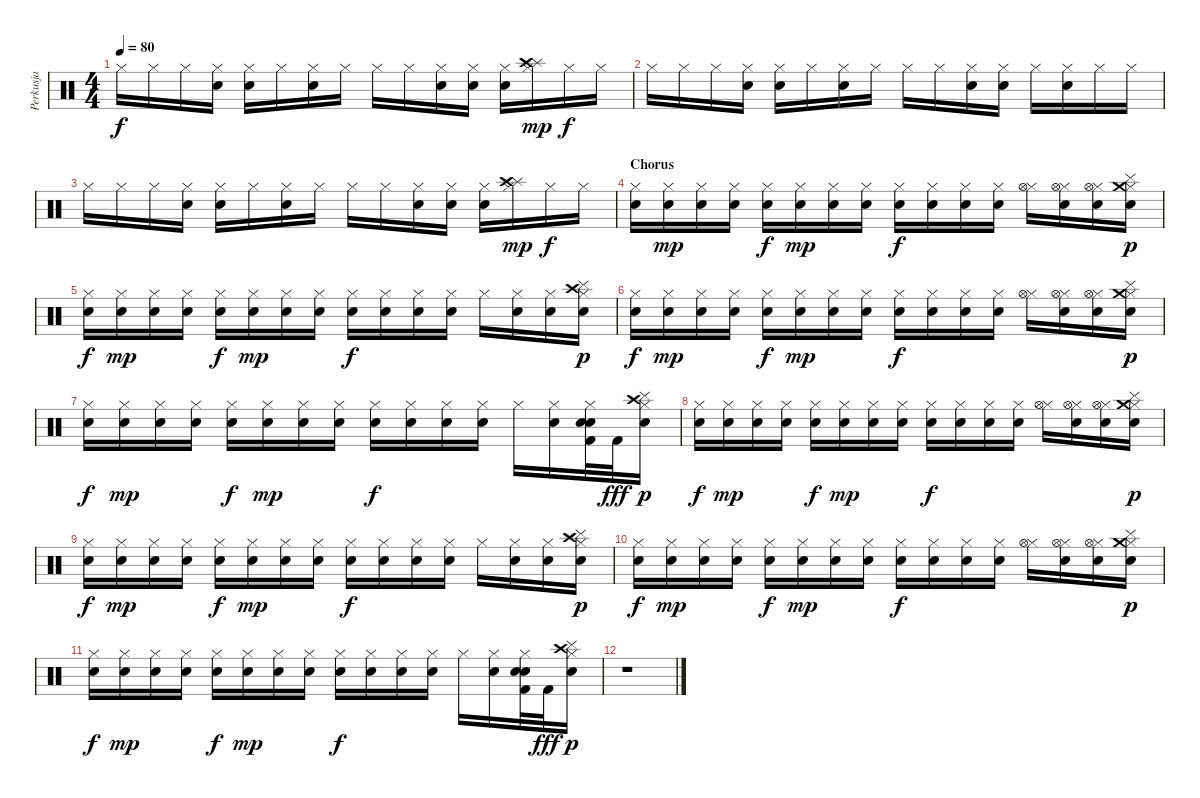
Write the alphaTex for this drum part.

\track ("Perkusja" "Perkusja") {instrument percussion}
\staff {score}
\articulation defaults
\ts (4 4)
\tempo 80
\clef neutral
\ks c "Hi-Hat (closed)".16{dy f} "Hi-Hat (closed)".16 "Hi-Hat (closed)".16
("Hi-Hat (closed)" "Electric Snare (hit)").16 ("Hi-Hat (closed)" "Snare (hit) 2").16 "Hi-Hat (closed)".16 ("Hi-Hat (closed)" "Electric Snare (hit)").16 "Hi-Hat (closed)".16 "Hi-Hat (closed)".16 "Hi-Hat (closed)".16 ("Hi-Hat (closed)" "Electric Snare (hit)").16 ("Hi-Hat (closed)" "Snare (hit) 2").16 ("Hi-Hat (closed)" "Electric Snare (hit)").16 ("Hi-Hat (closed)" "Splash (hit)" "Crash high (hit)").16{dy mp} "Hi-Hat (closed)".16{dy f} "Hi-Hat (closed)".16 |
"Hi-Hat (closed)".16 "Hi-Hat (closed)".16 "Hi-Hat (closed)".16 ("Hi-Hat (closed)" "Electric Snare (hit)").16 ("Hi-Hat (closed)" "Snare (hit) 2").16 "Hi-Hat (closed)".16 ("Hi-Hat (closed)" "Electric Snare (hit)").16 "Hi-Hat (closed)".16 "Hi-Hat (closed)".16 "Hi-Hat (closed)".16 ("Hi-Hat (closed)" "Electric Snare (hit)").16 ("Hi-Hat (closed)" "Snare (hit) 2").16 "Hi-Hat (closed)".16 ("Hi-Hat (closed)" "Electric Snare (hit)").16 "Hi-Hat (closed)".16 "Hi-Hat (closed)".16 |
"Hi-Hat (closed)".16 "Hi-Hat (closed)".16 "Hi-Hat (closed)".16 ("Hi-Hat (closed)" "Electric Snare (hit)").16 ("Hi-Hat (closed)" "Snare (hit) 2").16 "Hi-Hat (closed)".16 ("Hi-Hat (closed)" "Electric Snare (hit)").16 "Hi-Hat (closed)".16 "Hi-Hat (closed)".16 "Hi-Hat (closed)".16 ("Hi-Hat (closed)" "Electric Snare (hit)").16 ("Hi-Hat (closed)" "Snare (hit) 2").16 ("Hi-Hat (closed)" "Electric Snare (hit)").16 ("Hi-Hat (closed)" "Splash (hit)" "Crash high (hit)").16{dy mp} "Hi-Hat (closed)".16{dy f} "Hi-Hat (closed)".16 |
\section ("" "Chorus")
("Hi-Hat (closed)" "Snare (hit) 2").16 ("Hi-Hat (closed)" "Electric Snare (hit)").16{dy mp} ("Hi-Hat (closed)" "Electric Snare (hit)").16 ("Hi-Hat (closed)" "Electric Snare (hit)").16 ("Hi-Hat (closed)" "Snare (hit) 2").16{dy f} ("Hi-Hat (closed)" "Electric Snare (hit)").16{dy mp} ("Hi-Hat (closed)" "Electric Snare (hit)").16 ("Hi-Hat (closed)" "Electric Snare (hit)").16 ("Hi-Hat (closed)" "Snare (hit) 2").16{dy f} ("Hi-Hat (closed)" "Electric Snare (hit)").16 ("Hi-Hat (closed)" "Electric Snare (hit)").16 ("Hi-Hat (closed)" "Snare (hit) 2").16 ("Hi-Hat (closed)" "Hi-Hat (open)").16 ("Hi-Hat (closed)" "Snare (hit) 2" "Hi-Hat (open)").16 ("Hi-Hat (closed)" "Snare (hit) 2" "Hi-Hat (open)").16 ("Hi-Hat (closed)" "Snare (hit) 2" "Cymbal (hit)" "Crash medium (hit)").16{dy p} |
("Hi-Hat (closed)" "Snare (hit) 2").16{dy f} ("Hi-Hat (closed)" "Electric Snare (hit)").16{dy mp} ("Hi-Hat (closed)" "Electric Snare (hit)").16 ("Hi-Hat (closed)" "Electric Snare (hit)").16 ("Hi-Hat (closed)" "Snare (hit) 2").16{dy f} ("Hi-Hat (closed)" "Electric Snare (hit)").16{dy mp} ("Hi-Hat (closed)" "Electric Snare (hit)").16 ("Hi-Hat (closed)" "Electric Snare (hit)").16 ("Hi-Hat (closed)" "Snare (hit) 2").16{dy f} ("Hi-Hat (closed)" "Electric Snare (hit)").16 ("Hi-Hat (closed)" "Electric Snare (hit)").16 ("Hi-Hat (closed)" "Snare (hit) 2").16 "Hi-Hat (closed)".16 ("Hi-Hat (closed)" "Snare (hit) 2").16 ("Hi-Hat (closed)" "Snare (hit) 2").16 ("Hi-Hat (closed)" "Snare (hit) 2" "Cymbal (hit)" "Crash high (hit)").16{dy p} |
("Hi-Hat (closed)" "Snare (hit) 2").16{dy f} ("Hi-Hat (closed)" "Electric Snare (hit)").16{dy mp} ("Hi-Hat (closed)" "Electric Snare (hit)").16 ("Hi-Hat (closed)" "Electric Snare (hit)").16 ("Hi-Hat (closed)" "Snare (hit) 2").16{dy f} ("Hi-Hat (closed)" "Electric Snare (hit)").16{dy mp} ("Hi-Hat (closed)" "Electric Snare (hit)").16 ("Hi-Hat (closed)" "Electric Snare (hit)").16 ("Hi-Hat (closed)" "Snare (hit) 2").16{dy f} ("Hi-Hat (closed)" "Electric Snare (hit)").16 ("Hi-Hat (closed)" "Electric Snare (hit)").16 ("Hi-Hat (closed)" "Snare (hit) 2").16 ("Hi-Hat (closed)" "Hi-Hat (open)").16 ("Hi-Hat (closed)" "Snare (hit) 2" "Hi-Hat (open)").16 ("Hi-Hat (closed)" "Snare (hit) 2" "Hi-Hat (open)").16 ("Hi-Hat (closed)" "Snare (hit) 2" "Cymbal (hit)" "Crash medium (hit)").16{dy p} |
("Hi-Hat (closed)" "Snare (hit) 2").16{dy f} ("Hi-Hat (closed)" "Electric Snare (hit)").16{dy mp} ("Hi-Hat (closed)" "Electric Snare (hit)").16 ("Hi-Hat (closed)" "Electric Snare (hit)").16 ("Hi-Hat (closed)" "Snare (hit) 2").16{dy f} ("Hi-Hat (closed)" "Electric Snare (hit)").16{dy mp} ("Hi-Hat (closed)" "Electric Snare (hit)").16 ("Hi-Hat (closed)" "Electric Snare (hit)").16 ("Hi-Hat (closed)" "Snare (hit) 2").16{dy f} ("Hi-Hat (closed)" "Electric Snare (hit)").16 ("Hi-Hat (closed)" "Electric Snare (hit)").16 ("Hi-Hat (closed)" "Snare (hit) 2").16 "Hi-Hat (closed)".16 ("Hi-Hat (closed)" "Snare (hit) 2").16 ("Hi-Hat (closed)" "Snare (hit) 2" "Electric Snare (hit)" "Kick (hit) 2").32 "Kick (hit) 2".32{dy fff} ("Hi-Hat (closed)" "Snare (hit) 2" "Cymbal (hit)" "Crash high (hit)").16{dy p} |
("Hi-Hat (closed)" "Snare (hit) 2").16{dy f} ("Hi-Hat (closed)" "Electric Snare (hit)").16{dy mp} ("Hi-Hat (closed)" "Electric Snare (hit)").16 ("Hi-Hat (closed)" "Electric Snare (hit)").16 ("Hi-Hat (closed)" "Snare (hit) 2").16{dy f} ("Hi-Hat (closed)" "Electric Snare (hit)").16{dy mp} ("Hi-Hat (closed)" "Electric Snare (hit)").16 ("Hi-Hat (closed)" "Electric Snare (hit)").16 ("Hi-Hat (closed)" "Snare (hit) 2").16{dy f} ("Hi-Hat (closed)" "Electric Snare (hit)").16 ("Hi-Hat (closed)" "Electric Snare (hit)").16 ("Hi-Hat (closed)" "Snare (hit) 2").16 ("Hi-Hat (closed)" "Hi-Hat (open)").16 ("Hi-Hat (closed)" "Snare (hit) 2" "Hi-Hat (open)").16 ("Hi-Hat (closed)" "Snare (hit) 2" "Hi-Hat (open)").16 ("Hi-Hat (closed)" "Snare (hit) 2" "Cymbal (hit)" "Crash medium (hit)").16{dy p} |
("Hi-Hat (closed)" "Snare (hit) 2").16{dy f} ("Hi-Hat (closed)" "Electric Snare (hit)").16{dy mp} ("Hi-Hat (closed)" "Electric Snare (hit)").16 ("Hi-Hat (closed)" "Electric Snare (hit)").16 ("Hi-Hat (closed)" "Snare (hit) 2").16{dy f} ("Hi-Hat (closed)" "Electric Snare (hit)").16{dy mp} ("Hi-Hat (closed)" "Electric Snare (hit)").16 ("Hi-Hat (closed)" "Electric Snare (hit)").16 ("Hi-Hat (closed)" "Snare (hit) 2").16{dy f} ("Hi-Hat (closed)" "Electric Snare (hit)").16 ("Hi-Hat (closed)" "Electric Snare (hit)").16 ("Hi-Hat (closed)" "Snare (hit) 2").16 "Hi-Hat (closed)".16 ("Hi-Hat (closed)" "Snare (hit) 2").16 ("Hi-Hat (closed)" "Snare (hit) 2").16 ("Hi-Hat (closed)" "Snare (hit) 2" "Cymbal (hit)" "Crash high (hit)").16{dy p} |
("Hi-Hat (closed)" "Snare (hit) 2").16{dy f} ("Hi-Hat (closed)" "Electric Snare (hit)").16{dy mp} ("Hi-Hat (closed)" "Electric Snare (hit)").16 ("Hi-Hat (closed)" "Electric Snare (hit)").16 ("Hi-Hat (closed)" "Snare (hit) 2").16{dy f} ("Hi-Hat (closed)" "Electric Snare (hit)").16{dy mp} ("Hi-Hat (closed)" "Electric Snare (hit)").16 ("Hi-Hat (closed)" "Electric Snare (hit)").16 ("Hi-Hat (closed)" "Snare (hit) 2").16{dy f} ("Hi-Hat (closed)" "Electric Snare (hit)").16 ("Hi-Hat (closed)" "Electric Snare (hit)").16 ("Hi-Hat (closed)" "Snare (hit) 2").16 ("Hi-Hat (closed)" "Hi-Hat (open)").16 ("Hi-Hat (closed)" "Snare (hit) 2" "Hi-Hat (open)").16 ("Hi-Hat (closed)" "Snare (hit) 2" "Hi-Hat (open)").16 ("Hi-Hat (closed)" "Snare (hit) 2" "Cymbal (hit)" "Crash medium (hit)").16{dy p} |
("Hi-Hat (closed)" "Snare (hit) 2").16{dy f} ("Hi-Hat (closed)" "Electric Snare (hit)").16{dy mp} ("Hi-Hat (closed)" "Electric Snare (hit)").16 ("Hi-Hat (closed)" "Electric Snare (hit)").16 ("Hi-Hat (closed)" "Snare (hit) 2").16{dy f} ("Hi-Hat (closed)" "Electric Snare (hit)").16{dy mp} ("Hi-Hat (closed)" "Electric Snare (hit)").16 ("Hi-Hat (closed)" "Electric Snare (hit)").16 ("Hi-Hat (closed)" "Snare (hit) 2").16{dy f} ("Hi-Hat (closed)" "Electric Snare (hit)").16 ("Hi-Hat (closed)" "Electric Snare (hit)").16 ("Hi-Hat (closed)" "Snare (hit) 2").16 "Hi-Hat (closed)".16 ("Hi-Hat (closed)" "Snare (hit) 2").16 ("Hi-Hat (closed)" "Snare (hit) 2" "Electric Snare (hit)" "Kick (hit) 2").32 "Kick (hit) 2".32{dy fff} ("Hi-Hat (closed)" "Snare (hit) 2" "Cymbal (hit)" "Crash high (hit)").16{dy p} |
r.1
